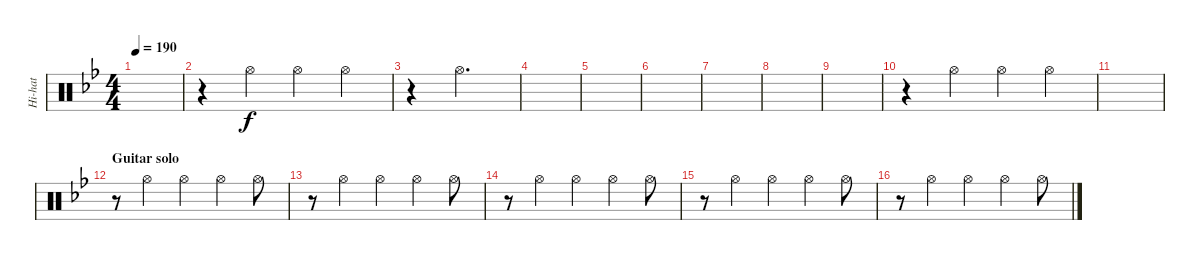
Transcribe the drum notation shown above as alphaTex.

\track ("Hi-hat" "Hi-hat") {instrument percussion}
\staff {score}
\articulation defaults
\ts (4 4)
\tempo 190
\clef neutral
\ks bb
|
r.4 "Hi-Hat (open)".4 "Hi-Hat (open)".4 "Hi-Hat (open)".4 |
r.4 "Hi-Hat (open)".2{d} |
|
|
|
|
|
|
r.4 "Hi-Hat (open)".4 "Hi-Hat (open)".4 "Hi-Hat (open)".4 |
|
\section ("" "Guitar solo")
r.8 "Hi-Hat (open)".4 "Hi-Hat (open)".4 "Hi-Hat (open)".4 "Hi-Hat (open)".8 |
r.8 "Hi-Hat (open)".4 "Hi-Hat (open)".4 "Hi-Hat (open)".4 "Hi-Hat (open)".8 |
r.8 "Hi-Hat (open)".4 "Hi-Hat (open)".4 "Hi-Hat (open)".4 "Hi-Hat (open)".8 |
r.8 "Hi-Hat (open)".4 "Hi-Hat (open)".4 "Hi-Hat (open)".4 "Hi-Hat (open)".8 |
r.8 "Hi-Hat (open)".4 "Hi-Hat (open)".4 "Hi-Hat (open)".4 "Hi-Hat (open)".8
